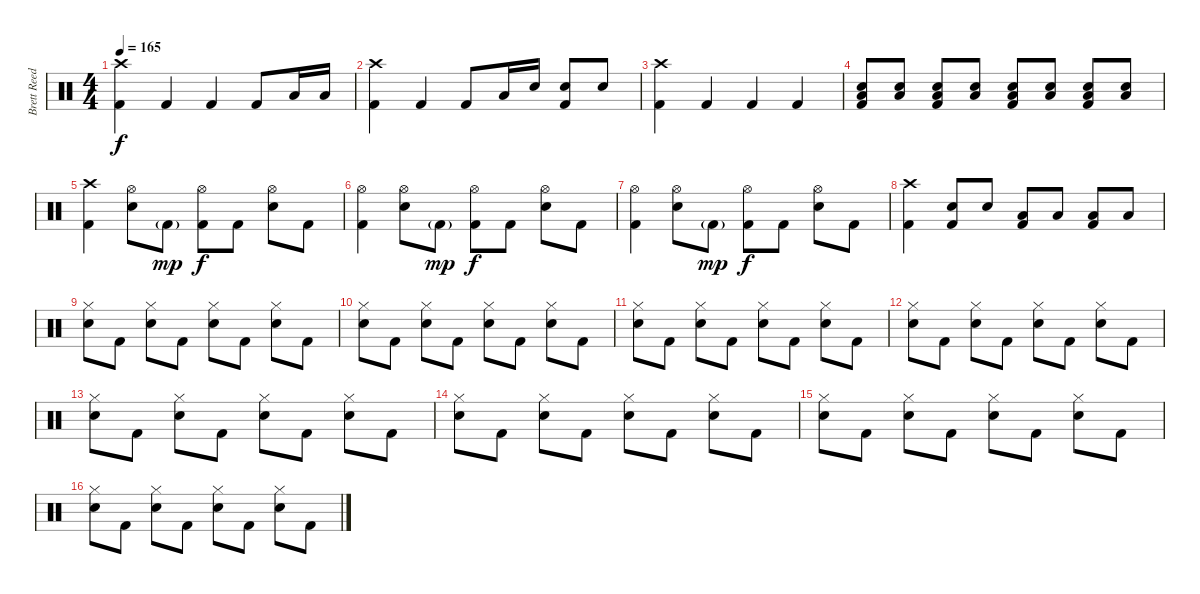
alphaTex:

\track ("Brett Reed - Drums" "Brett Reed") {instrument percussion}
\staff {score}
\articulation defaults
\ts (4 4)
\tempo 165
\clef neutral
\ks c
("Crash high (hit)" "Kick (hit) 2").4{dy f} "Kick (hit) 2".4 "Kick (hit) 2".4 "Kick (hit) 2".8 "Low Tom (hit)".16 "Low Tom (hit)".16 |
("Crash high (hit)" "Kick (hit) 2").4 "Kick (hit) 2".4 "Kick (hit) 2".8 "Low Tom (hit)".16 "Electric Snare (hit)".16 ("Electric Snare (hit)" "Kick (hit) 2").8 "Electric Snare (hit)".8 |
("Crash high (hit)" "Kick (hit) 2").4 "Kick (hit) 2".4 "Kick (hit) 2".4 "Kick (hit) 2".4 |
("Low Tom (hit)" "Electric Snare (hit)" "Kick (hit) 2").8 ("Low Tom (hit)" "Electric Snare (hit)").8 ("Low Tom (hit)" "Electric Snare (hit)" "Kick (hit) 2").8 ("Low Tom (hit)" "Electric Snare (hit)").8 ("Low Tom (hit)" "Electric Snare (hit)" "Kick (hit) 2").8 ("Low Tom (hit)" "Electric Snare (hit)").8 ("Low Tom (hit)" "Electric Snare (hit)" "Kick (hit) 2").8 ("Low Tom (hit)" "Electric Snare (hit)").8 |
("Crash high (hit)" "Kick (hit) 2").4 ("Hi-Hat (open)" "Electric Snare (hit)").8 "Kick (hit) 2"{g}.8{dy mp} ("Hi-Hat (open)" "Kick (hit) 2").8{dy f} "Kick (hit) 2".8 ("Hi-Hat (open)" "Electric Snare (hit)").8 "Kick (hit) 2".8 |
("Hi-Hat (open)" "Kick (hit) 2").4 ("Hi-Hat (open)" "Electric Snare (hit)").8 "Kick (hit) 2"{g}.8{dy mp} ("Hi-Hat (open)" "Kick (hit) 2").8{dy f} "Kick (hit) 2".8 ("Hi-Hat (open)" "Electric Snare (hit)").8 "Kick (hit) 2".8 |
("Hi-Hat (open)" "Kick (hit) 2").4 ("Hi-Hat (open)" "Electric Snare (hit)").8 "Kick (hit) 2"{g}.8{dy mp} ("Hi-Hat (open)" "Kick (hit) 2").8{dy f} "Kick (hit) 2".8 ("Hi-Hat (open)" "Electric Snare (hit)").8 "Kick (hit) 2".8 |
("Crash high (hit)" "Kick (hit) 2").4 ("Electric Snare (hit)" "Kick (hit) 2").8 "Electric Snare (hit)".8 ("Low Tom (hit)" "Kick (hit) 2").8 "Low Tom (hit)".8 ("Low Tom (hit)" "Kick (hit) 2").8 "Low Tom (hit)".8 |
("Hi-Hat (closed)" "Electric Snare (hit)").8 "Kick (hit) 2".8 ("Hi-Hat (closed)" "Electric Snare (hit)").8 "Kick (hit) 2".8 ("Hi-Hat (closed)" "Electric Snare (hit)").8 "Kick (hit) 2".8 ("Hi-Hat (closed)" "Electric Snare (hit)").8 "Kick (hit) 2".8 |
("Hi-Hat (closed)" "Electric Snare (hit)").8 "Kick (hit) 2".8 ("Hi-Hat (closed)" "Electric Snare (hit)").8 "Kick (hit) 2".8 ("Hi-Hat (closed)" "Electric Snare (hit)").8 "Kick (hit) 2".8 ("Hi-Hat (closed)" "Electric Snare (hit)").8 "Kick (hit) 2".8 |
("Hi-Hat (closed)" "Electric Snare (hit)").8 "Kick (hit) 2".8 ("Hi-Hat (closed)" "Electric Snare (hit)").8 "Kick (hit) 2".8 ("Hi-Hat (closed)" "Electric Snare (hit)").8 "Kick (hit) 2".8 ("Hi-Hat (closed)" "Electric Snare (hit)").8 "Kick (hit) 2".8 |
("Hi-Hat (closed)" "Electric Snare (hit)").8 "Kick (hit) 2".8 ("Hi-Hat (closed)" "Electric Snare (hit)").8 "Kick (hit) 2".8 ("Hi-Hat (closed)" "Electric Snare (hit)").8 "Kick (hit) 2".8 ("Hi-Hat (closed)" "Electric Snare (hit)").8 "Kick (hit) 2".8 |
("Hi-Hat (closed)" "Electric Snare (hit)").8 "Kick (hit) 2".8 ("Hi-Hat (closed)" "Electric Snare (hit)").8 "Kick (hit) 2".8 ("Hi-Hat (closed)" "Electric Snare (hit)").8 "Kick (hit) 2".8 ("Hi-Hat (closed)" "Electric Snare (hit)").8 "Kick (hit) 2".8 |
("Hi-Hat (closed)" "Electric Snare (hit)").8 "Kick (hit) 2".8 ("Hi-Hat (closed)" "Electric Snare (hit)").8 "Kick (hit) 2".8 ("Hi-Hat (closed)" "Electric Snare (hit)").8 "Kick (hit) 2".8 ("Hi-Hat (closed)" "Electric Snare (hit)").8 "Kick (hit) 2".8 |
("Hi-Hat (closed)" "Electric Snare (hit)").8 "Kick (hit) 2".8 ("Hi-Hat (closed)" "Electric Snare (hit)").8 "Kick (hit) 2".8 ("Hi-Hat (closed)" "Electric Snare (hit)").8 "Kick (hit) 2".8 ("Hi-Hat (closed)" "Electric Snare (hit)").8 "Kick (hit) 2".8 |
("Hi-Hat (closed)" "Electric Snare (hit)").8 "Kick (hit) 2".8 ("Hi-Hat (closed)" "Electric Snare (hit)").8 "Kick (hit) 2".8 ("Hi-Hat (closed)" "Electric Snare (hit)").8 "Kick (hit) 2".8 ("Hi-Hat (closed)" "Electric Snare (hit)").8 "Kick (hit) 2".8
